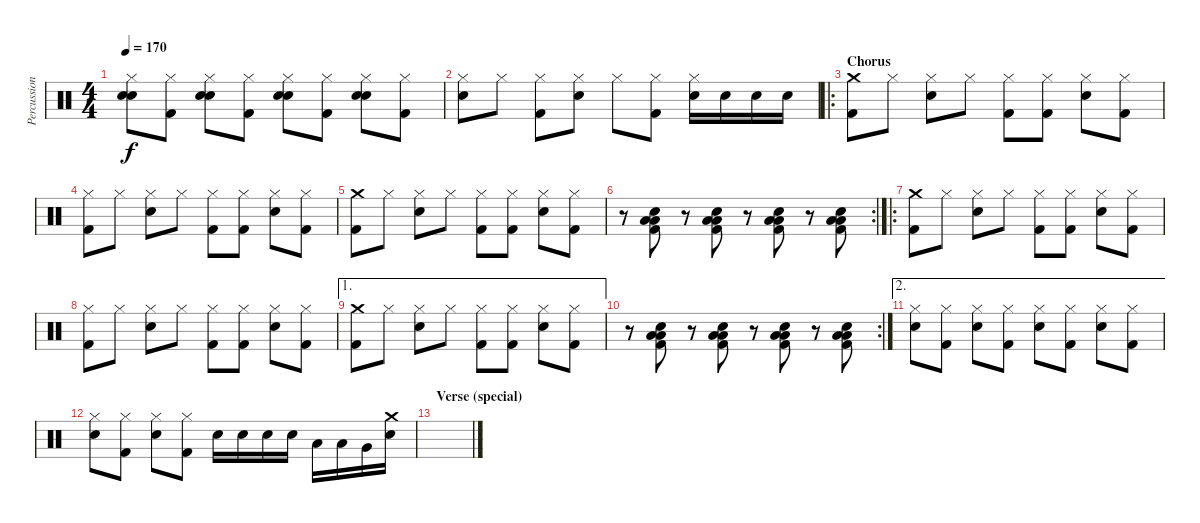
\track ("Percussions" "Percussion") {instrument percussion}
\staff {score}
\articulation defaults
\ts (4 4)
\tempo 170
\clef neutral
\ks c
("Hi-Hat (closed)" "Snare (hit) 2" "Snare (hit) 2").8{bu 60 dy f} ("Hi-Hat (closed)" "Kick (hit) 2").8 ("Hi-Hat (closed)" "Snare (hit) 2" "Snare (hit) 2").8{bu 60} ("Hi-Hat (closed)" "Kick (hit) 2").8 ("Hi-Hat (closed)" "Snare (hit) 2" "Snare (hit) 2").8{bu 60} ("Hi-Hat (closed)" "Kick (hit) 2").8 ("Hi-Hat (closed)" "Snare (hit) 2" "Snare (hit) 2").8{bu 60} ("Hi-Hat (closed)" "Kick (hit) 2").8 |
("Hi-Hat (closed)" "Snare (hit) 2").8 "Hi-Hat (closed)".8 ("Hi-Hat (closed)" "Kick (hit) 2").8 ("Hi-Hat (closed)" "Snare (hit) 2").8 "Hi-Hat (closed)".8 ("Hi-Hat (closed)" "Kick (hit) 2").8 ("Hi-Hat (closed)" "Snare (hit) 2").16 "Snare (hit) 2".16 "Snare (hit) 2".16 "Snare (hit) 2".16 |
\ro
\section ("" "Chorus")
("Crash medium (hit)" "Kick (hit) 2").8 "Hi-Hat (closed)".8 ("Hi-Hat (closed)" "Snare (hit) 2").8 "Hi-Hat (closed)".8 ("Hi-Hat (closed)" "Kick (hit) 2").8 ("Hi-Hat (closed)" "Kick (hit) 2").8 ("Hi-Hat (closed)" "Snare (hit) 2").8 ("Hi-Hat (closed)" "Kick (hit) 2").8 |
("Hi-Hat (closed)" "Kick (hit) 2").8 "Hi-Hat (closed)".8 ("Hi-Hat (closed)" "Snare (hit) 2").8 "Hi-Hat (closed)".8 ("Hi-Hat (closed)" "Kick (hit) 2").8 ("Hi-Hat (closed)" "Kick (hit) 2").8 ("Hi-Hat (closed)" "Snare (hit) 2").8 ("Hi-Hat (closed)" "Kick (hit) 2").8 |
("Crash medium (hit)" "Kick (hit) 2").8 "Hi-Hat (closed)".8 ("Hi-Hat (closed)" "Snare (hit) 2").8 "Hi-Hat (closed)".8 ("Hi-Hat (closed)" "Kick (hit) 2").8 ("Hi-Hat (closed)" "Kick (hit) 2").8 ("Hi-Hat (closed)" "Snare (hit) 2").8 ("Hi-Hat (closed)" "Kick (hit) 2").8 |
\rc 2
r.8 ("Low Floor Tom (hit)" "Low Tom (hit)" "Snare (hit) 2" "Kick (hit) 2").8 r.8 ("Low Floor Tom (hit)" "Low Tom (hit)" "Snare (hit) 2" "Kick (hit) 2").8 r.8 ("Low Floor Tom (hit)" "Low Tom (hit)" "Snare (hit) 2" "Kick (hit) 2").8 r.8 ("Low Floor Tom (hit)" "Low Tom (hit)" "Snare (hit) 2" "Kick (hit) 2").8 |
\ro
("Crash medium (hit)" "Kick (hit) 2").8 "Hi-Hat (closed)".8 ("Hi-Hat (closed)" "Snare (hit) 2").8 "Hi-Hat (closed)".8 ("Hi-Hat (closed)" "Kick (hit) 2").8 ("Hi-Hat (closed)" "Kick (hit) 2").8 ("Hi-Hat (closed)" "Snare (hit) 2").8 ("Hi-Hat (closed)" "Kick (hit) 2").8 |
("Hi-Hat (closed)" "Kick (hit) 2").8 "Hi-Hat (closed)".8 ("Hi-Hat (closed)" "Snare (hit) 2").8 "Hi-Hat (closed)".8 ("Hi-Hat (closed)" "Kick (hit) 2").8 ("Hi-Hat (closed)" "Kick (hit) 2").8 ("Hi-Hat (closed)" "Snare (hit) 2").8 ("Hi-Hat (closed)" "Kick (hit) 2").8 |
\ae 1
("Crash medium (hit)" "Kick (hit) 2").8 "Hi-Hat (closed)".8 ("Hi-Hat (closed)" "Snare (hit) 2").8 "Hi-Hat (closed)".8 ("Hi-Hat (closed)" "Kick (hit) 2").8 ("Hi-Hat (closed)" "Kick (hit) 2").8 ("Hi-Hat (closed)" "Snare (hit) 2").8 ("Hi-Hat (closed)" "Kick (hit) 2").8 |
\rc 2
r.8 ("Low Floor Tom (hit)" "Low Tom (hit)" "Snare (hit) 2" "Kick (hit) 2").8 r.8 ("Low Floor Tom (hit)" "Low Tom (hit)" "Snare (hit) 2" "Kick (hit) 2").8 r.8 ("Low Floor Tom (hit)" "Low Tom (hit)" "Snare (hit) 2" "Kick (hit) 2").8 r.8 ("Low Floor Tom (hit)" "Low Tom (hit)" "Snare (hit) 2" "Kick (hit) 2").8 |
\ae 2
("Hi-Hat (closed)" "Snare (hit) 2").8 ("Hi-Hat (closed)" "Kick (hit) 2").8 ("Hi-Hat (closed)" "Snare (hit) 2").8 ("Hi-Hat (closed)" "Kick (hit) 2").8 ("Hi-Hat (closed)" "Snare (hit) 2").8 ("Hi-Hat (closed)" "Kick (hit) 2").8 ("Hi-Hat (closed)" "Snare (hit) 2").8 ("Hi-Hat (closed)" "Kick (hit) 2").8 |
("Hi-Hat (closed)" "Snare (hit) 2").8 ("Hi-Hat (closed)" "Kick (hit) 2").8 ("Hi-Hat (closed)" "Snare (hit) 2").8 ("Hi-Hat (closed)" "Kick (hit) 2").8 "Snare (hit) 2".16 "Snare (hit) 2".16 "Snare (hit) 2".16 "Snare (hit) 2".16 "Low Tom (hit)".16 "Low Tom (hit)".16 "Very Low Tom (hit)".16 ("Crash medium (hit)" "Snare (hit) 2").16 |
\section ("" "Verse (special)")
